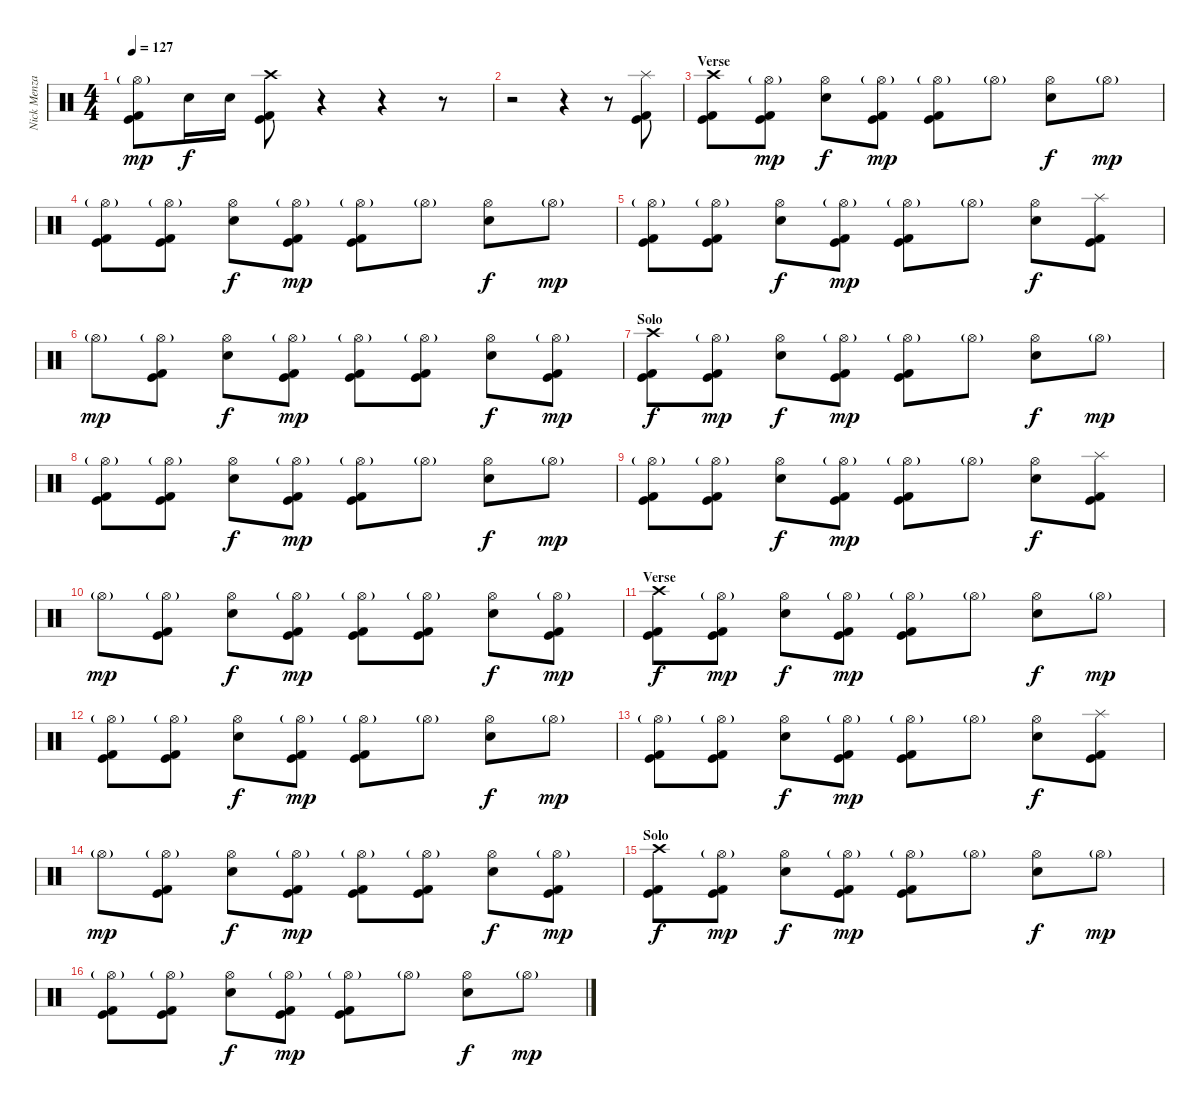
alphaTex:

\track ("Nick Menza (Drums)" "Nick Menza") {instrument percussion}
\staff {score}
\articulation defaults
\ts (4 4)
\tempo 127
\clef neutral
\ks c
("Hi-Hat (open)"{g} "Kick (hit)" "Kick (hit) 2").8{dy mp} "Electric Snare (hit)".16{dy f} "Electric Snare (hit)".16 ("Crash high (hit)" "Kick (hit)" "Kick (hit) 2").8 r.4 r.4 r.8 |
r.2 r.4 r.8 ("Splash (hit)" "Kick (hit)" "Kick (hit) 2").8 |
\section ("" "Verse")
("Crash high (hit)" "Kick (hit)" "Kick (hit) 2").8 ("Hi-Hat (open)"{g} "Kick (hit)" "Kick (hit) 2").8{dy mp} ("Hi-Hat (open)" "Electric Snare (hit)").8{dy f} ("Hi-Hat (open)"{g} "Kick (hit)" "Kick (hit) 2").8{dy mp} ("Hi-Hat (open)"{g} "Kick (hit)" "Kick (hit) 2").8 "Hi-Hat (open)"{g}.8 ("Hi-Hat (open)" "Electric Snare (hit)").8{dy f} "Hi-Hat (open)"{g}.8{dy mp} |
("Hi-Hat (open)"{g} "Kick (hit)" "Kick (hit) 2").8 ("Hi-Hat (open)"{g} "Kick (hit)" "Kick (hit) 2").8 ("Hi-Hat (open)" "Electric Snare (hit)").8{dy f} ("Hi-Hat (open)"{g} "Kick (hit)" "Kick (hit) 2").8{dy mp} ("Hi-Hat (open)"{g} "Kick (hit)" "Kick (hit) 2").8 "Hi-Hat (open)"{g}.8 ("Hi-Hat (open)" "Electric Snare (hit)").8{dy f} "Hi-Hat (open)"{g}.8{dy mp} |
("Hi-Hat (open)"{g} "Kick (hit)" "Kick (hit) 2").8 ("Hi-Hat (open)"{g} "Kick (hit)" "Kick (hit) 2").8 ("Hi-Hat (open)" "Electric Snare (hit)").8{dy f} ("Hi-Hat (open)"{g} "Kick (hit)" "Kick (hit) 2").8{dy mp} ("Hi-Hat (open)"{g} "Kick (hit)" "Kick (hit) 2").8 "Hi-Hat (open)"{g}.8 ("Hi-Hat (open)" "Electric Snare (hit)").8{dy f} ("Splash (hit)" "Kick (hit)" "Kick (hit) 2").8 |
"Hi-Hat (open)"{g}.8{dy mp} ("Hi-Hat (open)"{g} "Kick (hit)" "Kick (hit) 2").8 ("Hi-Hat (open)" "Electric Snare (hit)").8{dy f} ("Hi-Hat (open)"{g} "Kick (hit)" "Kick (hit) 2").8{dy mp} ("Hi-Hat (open)"{g} "Kick (hit)" "Kick (hit) 2").8 ("Hi-Hat (open)"{g} "Kick (hit)" "Kick (hit) 2").8 ("Hi-Hat (open)" "Electric Snare (hit)").8{dy f} ("Hi-Hat (open)"{g} "Kick (hit)" "Kick (hit) 2").8{dy mp} |
\section ("" "Solo")
("Crash high (hit)" "Kick (hit)" "Kick (hit) 2").8{dy f} ("Hi-Hat (open)"{g} "Kick (hit)" "Kick (hit) 2").8{dy mp} ("Hi-Hat (open)" "Electric Snare (hit)").8{dy f} ("Hi-Hat (open)"{g} "Kick (hit)" "Kick (hit) 2").8{dy mp} ("Hi-Hat (open)"{g} "Kick (hit)" "Kick (hit) 2").8 "Hi-Hat (open)"{g}.8 ("Hi-Hat (open)" "Electric Snare (hit)").8{dy f} "Hi-Hat (open)"{g}.8{dy mp} |
("Hi-Hat (open)"{g} "Kick (hit)" "Kick (hit) 2").8 ("Hi-Hat (open)"{g} "Kick (hit)" "Kick (hit) 2").8 ("Hi-Hat (open)" "Electric Snare (hit)").8{dy f} ("Hi-Hat (open)"{g} "Kick (hit)" "Kick (hit) 2").8{dy mp} ("Hi-Hat (open)"{g} "Kick (hit)" "Kick (hit) 2").8 "Hi-Hat (open)"{g}.8 ("Hi-Hat (open)" "Electric Snare (hit)").8{dy f} "Hi-Hat (open)"{g}.8{dy mp} |
("Hi-Hat (open)"{g} "Kick (hit)" "Kick (hit) 2").8 ("Hi-Hat (open)"{g} "Kick (hit)" "Kick (hit) 2").8 ("Hi-Hat (open)" "Electric Snare (hit)").8{dy f} ("Hi-Hat (open)"{g} "Kick (hit)" "Kick (hit) 2").8{dy mp} ("Hi-Hat (open)"{g} "Kick (hit)" "Kick (hit) 2").8 "Hi-Hat (open)"{g}.8 ("Hi-Hat (open)" "Electric Snare (hit)").8{dy f} ("Splash (hit)" "Kick (hit)" "Kick (hit) 2").8 |
"Hi-Hat (open)"{g}.8{dy mp} ("Hi-Hat (open)"{g} "Kick (hit)" "Kick (hit) 2").8 ("Hi-Hat (open)" "Electric Snare (hit)").8{dy f} ("Hi-Hat (open)"{g} "Kick (hit)" "Kick (hit) 2").8{dy mp} ("Hi-Hat (open)"{g} "Kick (hit)" "Kick (hit) 2").8 ("Hi-Hat (open)"{g} "Kick (hit)" "Kick (hit) 2").8 ("Hi-Hat (open)" "Electric Snare (hit)").8{dy f} ("Hi-Hat (open)"{g} "Kick (hit)" "Kick (hit) 2").8{dy mp} |
\section ("" "Verse")
("Crash high (hit)" "Kick (hit)" "Kick (hit) 2").8{dy f} ("Hi-Hat (open)"{g} "Kick (hit)" "Kick (hit) 2").8{dy mp} ("Hi-Hat (open)" "Electric Snare (hit)").8{dy f} ("Hi-Hat (open)"{g} "Kick (hit)" "Kick (hit) 2").8{dy mp} ("Hi-Hat (open)"{g} "Kick (hit)" "Kick (hit) 2").8 "Hi-Hat (open)"{g}.8 ("Hi-Hat (open)" "Electric Snare (hit)").8{dy f} "Hi-Hat (open)"{g}.8{dy mp} |
("Hi-Hat (open)"{g} "Kick (hit)" "Kick (hit) 2").8 ("Hi-Hat (open)"{g} "Kick (hit)" "Kick (hit) 2").8 ("Hi-Hat (open)" "Electric Snare (hit)").8{dy f} ("Hi-Hat (open)"{g} "Kick (hit)" "Kick (hit) 2").8{dy mp} ("Hi-Hat (open)"{g} "Kick (hit)" "Kick (hit) 2").8 "Hi-Hat (open)"{g}.8 ("Hi-Hat (open)" "Electric Snare (hit)").8{dy f} "Hi-Hat (open)"{g}.8{dy mp} |
("Hi-Hat (open)"{g} "Kick (hit)" "Kick (hit) 2").8 ("Hi-Hat (open)"{g} "Kick (hit)" "Kick (hit) 2").8 ("Hi-Hat (open)" "Electric Snare (hit)").8{dy f} ("Hi-Hat (open)"{g} "Kick (hit)" "Kick (hit) 2").8{dy mp} ("Hi-Hat (open)"{g} "Kick (hit)" "Kick (hit) 2").8 "Hi-Hat (open)"{g}.8 ("Hi-Hat (open)" "Electric Snare (hit)").8{dy f} ("Splash (hit)" "Kick (hit)" "Kick (hit) 2").8 |
"Hi-Hat (open)"{g}.8{dy mp} ("Hi-Hat (open)"{g} "Kick (hit)" "Kick (hit) 2").8 ("Hi-Hat (open)" "Electric Snare (hit)").8{dy f} ("Hi-Hat (open)"{g} "Kick (hit)" "Kick (hit) 2").8{dy mp} ("Hi-Hat (open)"{g} "Kick (hit)" "Kick (hit) 2").8 ("Hi-Hat (open)"{g} "Kick (hit)" "Kick (hit) 2").8 ("Hi-Hat (open)" "Electric Snare (hit)").8{dy f} ("Hi-Hat (open)"{g} "Kick (hit)" "Kick (hit) 2").8{dy mp} |
\section ("" "Solo")
("Crash high (hit)" "Kick (hit)" "Kick (hit) 2").8{dy f} ("Hi-Hat (open)"{g} "Kick (hit)" "Kick (hit) 2").8{dy mp} ("Hi-Hat (open)" "Electric Snare (hit)").8{dy f} ("Hi-Hat (open)"{g} "Kick (hit)" "Kick (hit) 2").8{dy mp} ("Hi-Hat (open)"{g} "Kick (hit)" "Kick (hit) 2").8 "Hi-Hat (open)"{g}.8 ("Hi-Hat (open)" "Electric Snare (hit)").8{dy f} "Hi-Hat (open)"{g}.8{dy mp} |
("Hi-Hat (open)"{g} "Kick (hit)" "Kick (hit) 2").8 ("Hi-Hat (open)"{g} "Kick (hit)" "Kick (hit) 2").8 ("Hi-Hat (open)" "Electric Snare (hit)").8{dy f} ("Hi-Hat (open)"{g} "Kick (hit)" "Kick (hit) 2").8{dy mp} ("Hi-Hat (open)"{g} "Kick (hit)" "Kick (hit) 2").8 "Hi-Hat (open)"{g}.8 ("Hi-Hat (open)" "Electric Snare (hit)").8{dy f} "Hi-Hat (open)"{g}.8{dy mp}
